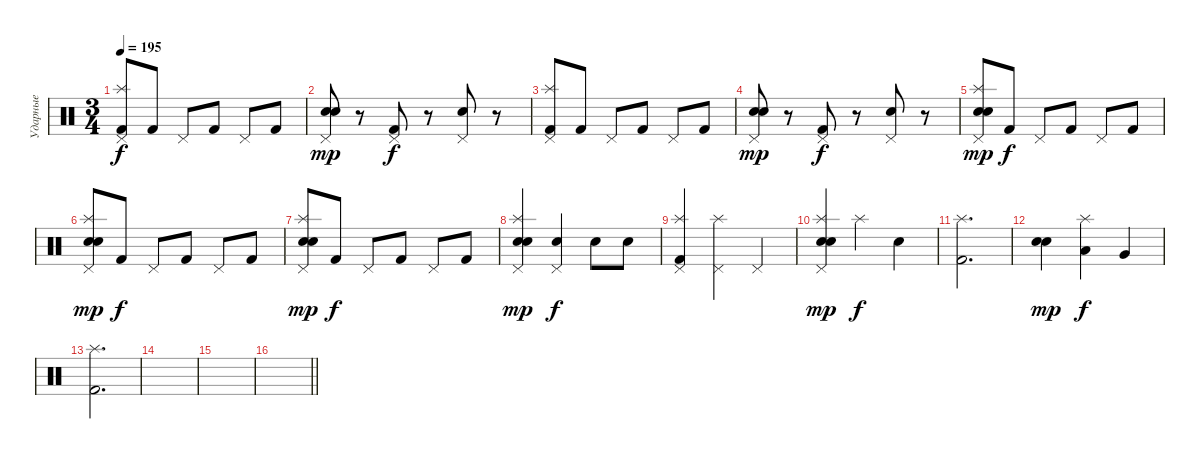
\track ("Ударные" "Ударные") {instrument percussion}
\staff {score}
\articulation defaults
\ts (3 4)
\tempo 195
\clef neutral
\ks c
("Pedal Hi-Hat (hit)" "Splash (hit)" "Kick (hit) 2").8{dy f} "Kick (hit) 2".8 "Pedal Hi-Hat (hit)".8 "Kick (hit) 2".8 "Pedal Hi-Hat (hit)".8 "Kick (hit) 2".8 |
("Pedal Hi-Hat (hit)" "Electric Snare (hit)" "Snare (hit) 2").8{dy mp} r.8 ("Pedal Hi-Hat (hit)" "Kick (hit) 2").8{dy f} r.8 ("Pedal Hi-Hat (hit)" "Electric Snare (hit)").8 r.8 |
("Pedal Hi-Hat (hit)" "Splash (hit)" "Kick (hit) 2").8 "Kick (hit) 2".8 "Pedal Hi-Hat (hit)".8 "Kick (hit) 2".8 "Pedal Hi-Hat (hit)".8 "Kick (hit) 2".8 |
("Pedal Hi-Hat (hit)" "Electric Snare (hit)" "Snare (hit) 2").8{dy mp} r.8 ("Pedal Hi-Hat (hit)" "Kick (hit) 2").8{dy f} r.8 ("Pedal Hi-Hat (hit)" "Electric Snare (hit)").8 r.8 |
("Pedal Hi-Hat (hit)" "Splash (hit)" "Electric Snare (hit)" "Snare (hit) 2").8{dy mp} "Kick (hit) 2".8{dy f} "Pedal Hi-Hat (hit)".8 "Kick (hit) 2".8 "Pedal Hi-Hat (hit)".8 "Kick (hit) 2".8 |
("Pedal Hi-Hat (hit)" "Splash (hit)" "Electric Snare (hit)" "Snare (hit) 2").8{dy mp} "Kick (hit) 2".8{dy f} "Pedal Hi-Hat (hit)".8 "Kick (hit) 2".8 "Pedal Hi-Hat (hit)".8 "Kick (hit) 2".8 |
("Pedal Hi-Hat (hit)" "Splash (hit)" "Electric Snare (hit)" "Snare (hit) 2").8{dy mp} "Kick (hit) 2".8{dy f} "Pedal Hi-Hat (hit)".8 "Kick (hit) 2".8 "Pedal Hi-Hat (hit)".8 "Kick (hit) 2".8 |
("Pedal Hi-Hat (hit)" "Splash (hit)" "Electric Snare (hit)" "Snare (hit) 2").4{dy mp} ("Pedal Hi-Hat (hit)" "Electric Snare (hit)").4{dy f} "Electric Snare (hit)".8 "Electric Snare (hit)".8 |
("Pedal Hi-Hat (hit)" "Splash (hit)" "Kick (hit) 2").4 ("Pedal Hi-Hat (hit)" "Splash (hit)").4 "Pedal Hi-Hat (hit)".4 |
("Pedal Hi-Hat (hit)" "Splash (hit)" "Electric Snare (hit)" "Snare (hit) 2").4{dy mp} "Splash (hit)".4{dy f} "Electric Snare (hit)".4 |
("Splash (hit)" "Kick (hit) 2").2{d} |
("Electric Snare (hit)" "Snare (hit) 2").4{dy mp} ("Splash (hit)" "Low Tom (hit)").4{dy f} "Very Low Tom (hit)".4 |
("Splash (hit)" "Kick (hit) 2").2{d} |
|
|
\barLineRight lightlight
